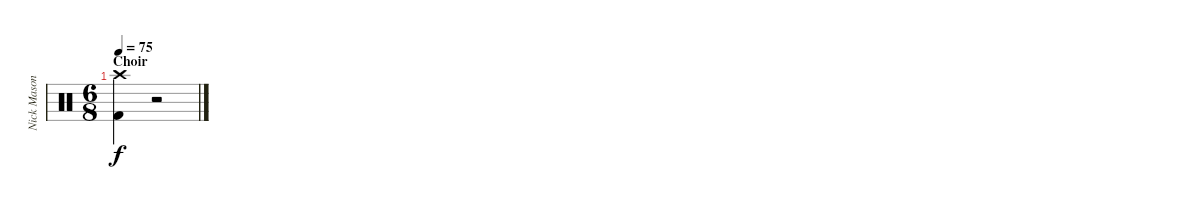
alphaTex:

\track ("Nick Mason (Drums)" "Nick Mason") {instrument percussion}
\staff {score}
\articulation defaults
\ts (6 8)
\section ("" "Choir")
\tempo 75
\clef neutral
\ks c
("Crash high (hit)" "Kick (hit) 2").4{dy f} r.2
